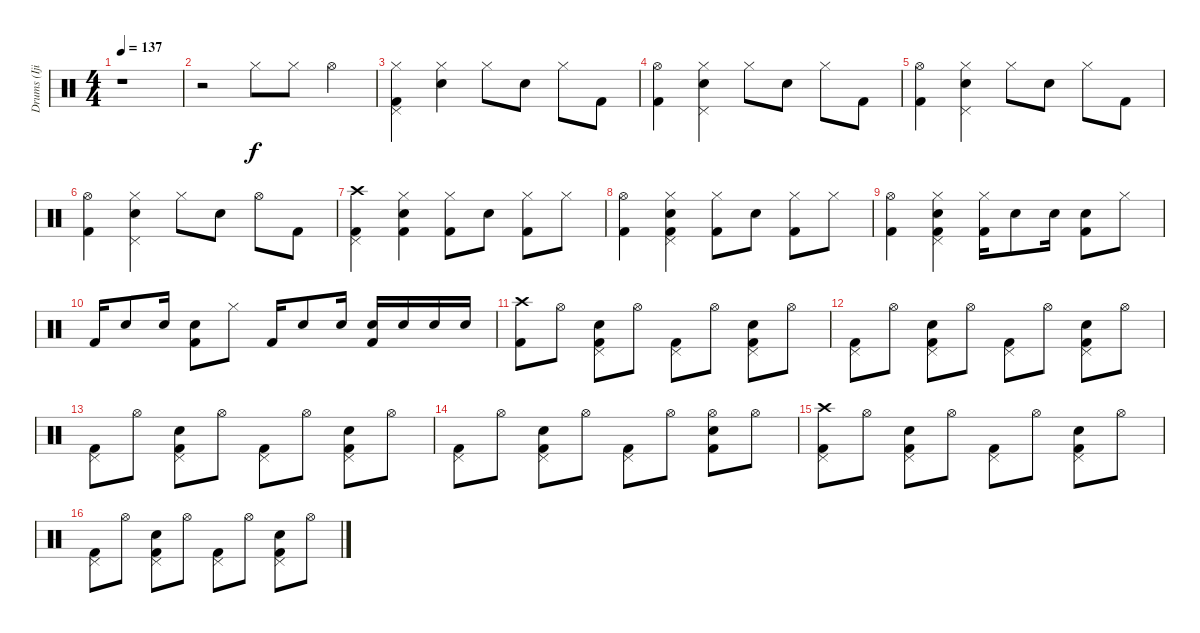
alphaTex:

\track ("Drums (Ijichi)" "Drums (Iji") {instrument percussion}
\staff {score}
\articulation defaults
\ts (4 4)
\tempo 137
\clef neutral
\ks c
r.1{dy f} |
r.2 "Hi-Hat (closed)".8 "Hi-Hat (closed)".8 "Hi-Hat (open)".4 |
("Hi-Hat (closed)" "Pedal Hi-Hat (hit)" "Kick (hit) 2").4 ("Hi-Hat (closed)" "Snare (hit) 2").4 "Hi-Hat (closed)".8 "Snare (hit) 2".8 "Hi-Hat (closed)".8 "Kick (hit) 2".8 |
("Hi-Hat (open)" "Kick (hit) 2").4 ("Hi-Hat (closed)" "Pedal Hi-Hat (hit)" "Snare (hit) 2").4 "Hi-Hat (closed)".8 "Snare (hit) 2".8 "Hi-Hat (closed)".8 "Kick (hit) 2".8 |
("Hi-Hat (open)" "Kick (hit) 2").4 ("Hi-Hat (closed)" "Pedal Hi-Hat (hit)" "Snare (hit) 2").4 "Hi-Hat (closed)".8 "Snare (hit) 2".8 "Hi-Hat (closed)".8 "Kick (hit) 2".8 |
("Hi-Hat (open)" "Kick (hit) 2").4 ("Hi-Hat (closed)" "Pedal Hi-Hat (hit)" "Snare (hit) 2").4 "Hi-Hat (closed)".8 "Snare (hit) 2".8 "Hi-Hat (open)".8 "Kick (hit) 2".8 |
("Crash high (hit)" "Pedal Hi-Hat (hit)" "Kick (hit) 2").4 ("Hi-Hat (closed)" "Snare (hit) 2" "Kick (hit) 2").4 ("Hi-Hat (closed)" "Kick (hit) 2").8 "Snare (hit) 2".8 ("Hi-Hat (closed)" "Kick (hit) 2").8 "Hi-Hat (closed)".8 |
("Hi-Hat (open)" "Kick (hit) 2").4 ("Hi-Hat (closed)" "Pedal Hi-Hat (hit)" "Snare (hit) 2" "Kick (hit) 2").4 ("Hi-Hat (closed)" "Kick (hit) 2").8 "Snare (hit) 2".8 ("Hi-Hat (closed)" "Kick (hit) 2").8 "Hi-Hat (closed)".8 |
("Hi-Hat (open)" "Kick (hit) 2").4 ("Hi-Hat (closed)" "Pedal Hi-Hat (hit)" "Snare (hit) 2" "Kick (hit) 2").4 ("Hi-Hat (closed)" "Kick (hit) 2").16 "Snare (hit) 2".8 "Snare (hit) 2".16 ("Snare (hit) 2" "Kick (hit) 2").8 "Hi-Hat (closed)".8 |
"Kick (hit) 2".16 "Snare (hit) 2".8 "Snare (hit) 2".16 ("Snare (hit) 2" "Kick (hit) 2").8 "Hi-Hat (closed)".8 "Kick (hit) 2".16 "Snare (hit) 2".8 "Snare (hit) 2".16 ("Snare (hit) 2" "Kick (hit) 2").16 "Snare (hit) 2".16 "Snare (hit) 2".16 "Snare (hit) 2".16 |
("Crash high (hit)" "Kick (hit) 2").8 "Hi-Hat (open)".8 ("Pedal Hi-Hat (hit)" "Snare (hit) 2" "Kick (hit) 2").8 "Hi-Hat (open)".8 ("Pedal Hi-Hat (hit)" "Kick (hit) 2").8 "Hi-Hat (open)".8 ("Pedal Hi-Hat (hit)" "Snare (hit) 2" "Kick (hit) 2").8 "Hi-Hat (open)".8 |
("Pedal Hi-Hat (hit)" "Kick (hit) 2").8 "Hi-Hat (open)".8 ("Pedal Hi-Hat (hit)" "Snare (hit) 2" "Kick (hit) 2").8 "Hi-Hat (open)".8 ("Pedal Hi-Hat (hit)" "Kick (hit) 2").8 "Hi-Hat (open)".8 ("Pedal Hi-Hat (hit)" "Snare (hit) 2" "Kick (hit) 2").8 "Hi-Hat (open)".8 |
("Pedal Hi-Hat (hit)" "Kick (hit) 2").8 "Hi-Hat (open)".8 ("Pedal Hi-Hat (hit)" "Snare (hit) 2" "Kick (hit) 2").8 "Hi-Hat (open)".8 ("Pedal Hi-Hat (hit)" "Kick (hit) 2").8 "Hi-Hat (open)".8 ("Pedal Hi-Hat (hit)" "Snare (hit) 2" "Kick (hit) 2").8 "Hi-Hat (open)".8 |
("Pedal Hi-Hat (hit)" "Kick (hit) 2").8 "Hi-Hat (open)".8 ("Pedal Hi-Hat (hit)" "Snare (hit) 2" "Kick (hit) 2").8 "Hi-Hat (open)".8 ("Pedal Hi-Hat (hit)" "Kick (hit) 2").8 "Hi-Hat (open)".8 ("Hi-Hat (open)" "Snare (hit) 2" "Kick (hit) 2").8 "Hi-Hat (open)".8 |
("Crash high (hit)" "Pedal Hi-Hat (hit)" "Kick (hit) 2").8 "Hi-Hat (open)".8 ("Pedal Hi-Hat (hit)" "Snare (hit) 2" "Kick (hit) 2").8 "Hi-Hat (open)".8 ("Pedal Hi-Hat (hit)" "Kick (hit) 2").8 "Hi-Hat (open)".8 ("Pedal Hi-Hat (hit)" "Snare (hit) 2" "Kick (hit) 2").8 "Hi-Hat (open)".8 |
("Pedal Hi-Hat (hit)" "Kick (hit) 2").8 "Hi-Hat (open)".8 ("Pedal Hi-Hat (hit)" "Snare (hit) 2" "Kick (hit) 2").8 "Hi-Hat (open)".8 ("Pedal Hi-Hat (hit)" "Kick (hit) 2").8 "Hi-Hat (open)".8 ("Pedal Hi-Hat (hit)" "Snare (hit) 2" "Kick (hit) 2").8 "Hi-Hat (open)".8
